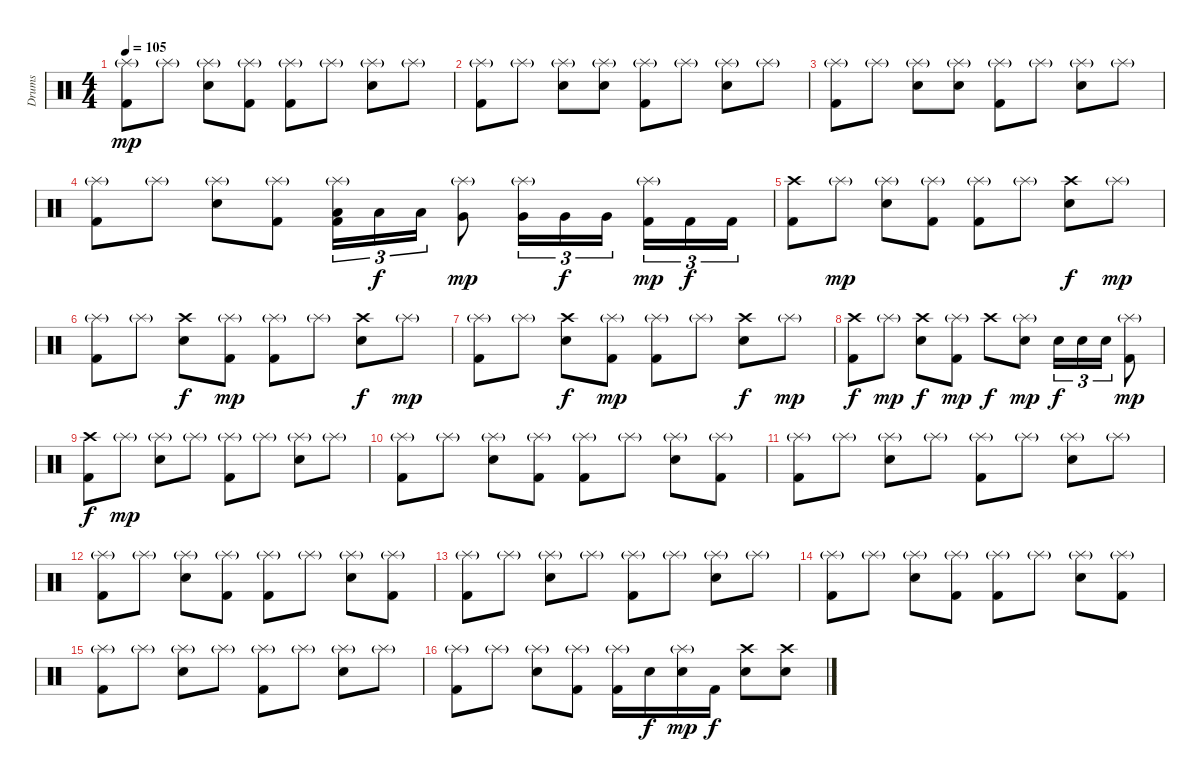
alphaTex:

\track ("Drums" "Drums") {instrument percussion}
\staff {score}
\articulation defaults
\ts (4 4)
\tempo 105
\clef neutral
\ks c
("Splash (hit)"{g} "Kick (hit) 2").8{dy mp} "Splash (hit)"{g}.8 ("Splash (hit)"{g} "Snare (hit) 2").8 ("Splash (hit)"{g} "Kick (hit) 2").8 ("Splash (hit)"{g} "Kick (hit) 2").8 "Splash (hit)"{g}.8 ("Splash (hit)"{g} "Snare (hit) 2").8 "Splash (hit)"{g}.8 |
("Splash (hit)"{g} "Kick (hit) 2").8 "Splash (hit)"{g}.8 ("Splash (hit)"{g} "Snare (hit) 2").8 ("Splash (hit)"{g} "Snare (hit) 2").8 ("Splash (hit)"{g} "Kick (hit) 2").8 "Splash (hit)"{g}.8 ("Splash (hit)"{g} "Snare (hit) 2").8 "Splash (hit)"{g}.8 |
("Splash (hit)"{g} "Kick (hit) 2").8 "Splash (hit)"{g}.8 ("Splash (hit)"{g} "Snare (hit) 2").8 ("Splash (hit)"{g} "Snare (hit) 2").8 ("Splash (hit)"{g} "Kick (hit) 2").8 "Splash (hit)"{g}.8 ("Splash (hit)"{g} "Snare (hit) 2").8 "Splash (hit)"{g}.8 |
("Splash (hit)"{g} "Kick (hit) 2").8 "Splash (hit)"{g}.8 ("Splash (hit)"{g} "Snare (hit) 2").8 ("Splash (hit)"{g} "Kick (hit) 2").8 ("Splash (hit)"{g} "Low Tom (hit)" "Kick (hit) 2").16{tu (3 2)} "Low Tom (hit)".16{tu (3 2) dy f} "Low Tom (hit)".16{tu (3 2)} ("Splash (hit)"{g} "Very Low Tom (hit)").8{dy mp} ("Splash (hit)"{g} "Very Low Tom (hit)").16{tu (3 2)} "Very Low Tom (hit)".16{tu (3 2) dy f} "Very Low Tom (hit)".16{tu (3 2) beam splitsecondary} ("Splash (hit)"{g} "Kick (hit) 2").16{tu (3 2) dy mp} "Kick (hit) 2".16{tu (3 2) dy f} "Kick (hit) 2".16{tu (3 2)} |
("Crash high (hit)" "Kick (hit) 2").8 "Splash (hit)"{g}.8{dy mp} ("Splash (hit)"{g} "Snare (hit) 2").8 ("Splash (hit)"{g} "Kick (hit) 2").8 ("Splash (hit)"{g} "Kick (hit) 2").8 "Splash (hit)"{g}.8 ("Crash high (hit)" "Snare (hit) 2").8{dy f} "Splash (hit)"{g}.8{dy mp} |
("Splash (hit)"{g} "Kick (hit) 2").8 "Splash (hit)"{g}.8 ("Crash high (hit)" "Snare (hit) 2").8{dy f} ("Splash (hit)"{g} "Kick (hit) 2").8{dy mp} ("Splash (hit)"{g} "Kick (hit) 2").8 "Splash (hit)"{g}.8 ("Crash high (hit)" "Snare (hit) 2").8{dy f} "Splash (hit)"{g}.8{dy mp} |
("Splash (hit)"{g} "Kick (hit) 2").8 "Splash (hit)"{g}.8 ("Crash high (hit)" "Snare (hit) 2").8{dy f} ("Splash (hit)"{g} "Kick (hit) 2").8{dy mp} ("Splash (hit)"{g} "Kick (hit) 2").8 "Splash (hit)"{g}.8 ("Crash high (hit)" "Snare (hit) 2").8{dy f} "Splash (hit)"{g}.8{dy mp} |
("Crash high (hit)" "Kick (hit) 2").8{dy f} "Splash (hit)"{g}.8{dy mp} ("Crash high (hit)" "Snare (hit) 2").8{dy f} ("Splash (hit)"{g} "Kick (hit) 2").8{dy mp} "Crash high (hit)".8{dy f} ("Splash (hit)"{g} "Snare (hit) 2").8{dy mp} "Snare (hit) 2".16{tu (3 2) dy f} "Snare (hit) 2".16{tu (3 2)} "Snare (hit) 2".16{tu (3 2)} ("Splash (hit)"{g} "Kick (hit) 2").8{dy mp} |
("Crash high (hit)" "Kick (hit) 2").8{dy f} "Splash (hit)"{g}.8{dy mp} ("Splash (hit)"{g} "Snare (hit) 2").8 "Splash (hit)"{g}.8 ("Splash (hit)"{g} "Kick (hit) 2").8 "Splash (hit)"{g}.8 ("Splash (hit)"{g} "Snare (hit) 2").8 "Splash (hit)"{g}.8 |
("Splash (hit)"{g} "Kick (hit) 2").8 "Splash (hit)"{g}.8 ("Splash (hit)"{g} "Snare (hit) 2").8 ("Splash (hit)"{g} "Kick (hit) 2").8 ("Splash (hit)"{g} "Kick (hit) 2").8 "Splash (hit)"{g}.8 ("Splash (hit)"{g} "Snare (hit) 2").8 ("Splash (hit)"{g} "Kick (hit) 2").8 |
("Splash (hit)"{g} "Kick (hit) 2").8 "Splash (hit)"{g}.8 ("Splash (hit)"{g} "Snare (hit) 2").8 "Splash (hit)"{g}.8 ("Splash (hit)"{g} "Kick (hit) 2").8 "Splash (hit)"{g}.8 ("Splash (hit)"{g} "Snare (hit) 2").8 "Splash (hit)"{g}.8 |
("Splash (hit)"{g} "Kick (hit) 2").8 "Splash (hit)"{g}.8 ("Splash (hit)"{g} "Snare (hit) 2").8 ("Splash (hit)"{g} "Kick (hit) 2").8 ("Splash (hit)"{g} "Kick (hit) 2").8 "Splash (hit)"{g}.8 ("Splash (hit)"{g} "Snare (hit) 2").8 ("Splash (hit)"{g} "Kick (hit) 2").8 |
("Splash (hit)"{g} "Kick (hit) 2").8 "Splash (hit)"{g}.8 ("Splash (hit)"{g} "Snare (hit) 2").8 "Splash (hit)"{g}.8 ("Splash (hit)"{g} "Kick (hit) 2").8 "Splash (hit)"{g}.8 ("Splash (hit)"{g} "Snare (hit) 2").8 "Splash (hit)"{g}.8 |
("Splash (hit)"{g} "Kick (hit) 2").8 "Splash (hit)"{g}.8 ("Splash (hit)"{g} "Snare (hit) 2").8 ("Splash (hit)"{g} "Kick (hit) 2").8 ("Splash (hit)"{g} "Kick (hit) 2").8 "Splash (hit)"{g}.8 ("Splash (hit)"{g} "Snare (hit) 2").8 ("Splash (hit)"{g} "Kick (hit) 2").8 |
("Splash (hit)"{g} "Kick (hit) 2").8 "Splash (hit)"{g}.8 ("Splash (hit)"{g} "Snare (hit) 2").8 "Splash (hit)"{g}.8 ("Splash (hit)"{g} "Kick (hit) 2").8 "Splash (hit)"{g}.8 ("Splash (hit)"{g} "Snare (hit) 2").8 "Splash (hit)"{g}.8 |
("Splash (hit)"{g} "Kick (hit) 2").8 "Splash (hit)"{g}.8 ("Splash (hit)"{g} "Snare (hit) 2").8 ("Splash (hit)"{g} "Kick (hit) 2").8 ("Splash (hit)"{g} "Kick (hit) 2").16 "Snare (hit) 2".16{dy f} ("Splash (hit)"{g} "Snare (hit) 2").16{dy mp} "Kick (hit) 2".16{dy f} ("Crash high (hit)" "Snare (hit) 2").8 ("Crash high (hit)" "Snare (hit) 2").8
